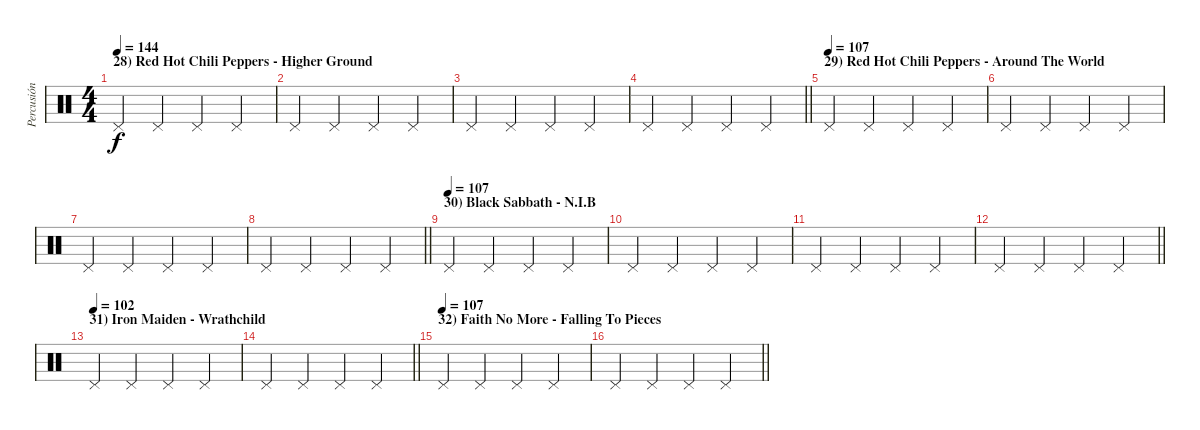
\track ("Percusión" "Percusión") {instrument percussion}
\staff {score}
\articulation defaults
\ts (4 4)
\section ("" "28) Red Hot Chili Peppers - Higher Ground")
\tempo 144
\clef neutral
\ks c "Pedal Hi-Hat (hit)".4{dy f} "Pedal Hi-Hat (hit)".4 "Pedal Hi-Hat (hit)".4 "Pedal Hi-Hat (hit)".4
|
"Pedal Hi-Hat (hit)".4 "Pedal Hi-Hat (hit)".4 "Pedal Hi-Hat (hit)".4 "Pedal Hi-Hat (hit)".4 |
"Pedal Hi-Hat (hit)".4 "Pedal Hi-Hat (hit)".4 "Pedal Hi-Hat (hit)".4 "Pedal Hi-Hat (hit)".4 |
\barLineRight lightlight "Pedal Hi-Hat (hit)".4 "Pedal Hi-Hat (hit)".4 "Pedal Hi-Hat (hit)".4 "Pedal Hi-Hat (hit)".4
|
\section ("" "29) Red Hot Chili Peppers - Around The World")
\tempo (107)
"Pedal Hi-Hat (hit)".4 "Pedal Hi-Hat (hit)".4 "Pedal Hi-Hat (hit)".4 "Pedal Hi-Hat (hit)".4 |
"Pedal Hi-Hat (hit)".4 "Pedal Hi-Hat (hit)".4 "Pedal Hi-Hat (hit)".4 "Pedal Hi-Hat (hit)".4 |
"Pedal Hi-Hat (hit)".4 "Pedal Hi-Hat (hit)".4 "Pedal Hi-Hat (hit)".4 "Pedal Hi-Hat (hit)".4 |
\barLineRight lightlight "Pedal Hi-Hat (hit)".4 "Pedal Hi-Hat (hit)".4 "Pedal Hi-Hat (hit)".4 "Pedal Hi-Hat (hit)".4
|
\section ("" "30) Black Sabbath - N.I.B")
\tempo (107)
"Pedal Hi-Hat (hit)".4 "Pedal Hi-Hat (hit)".4 "Pedal Hi-Hat (hit)".4 "Pedal Hi-Hat (hit)".4 |
"Pedal Hi-Hat (hit)".4 "Pedal Hi-Hat (hit)".4 "Pedal Hi-Hat (hit)".4 "Pedal Hi-Hat (hit)".4 |
"Pedal Hi-Hat (hit)".4 "Pedal Hi-Hat (hit)".4 "Pedal Hi-Hat (hit)".4 "Pedal Hi-Hat (hit)".4 |
\barLineRight lightlight "Pedal Hi-Hat (hit)".4 "Pedal Hi-Hat (hit)".4 "Pedal Hi-Hat (hit)".4 "Pedal Hi-Hat (hit)".4
|
\section ("" "31) Iron Maiden - Wrathchild")
\tempo (102)
"Pedal Hi-Hat (hit)".4 "Pedal Hi-Hat (hit)".4 "Pedal Hi-Hat (hit)".4 "Pedal Hi-Hat (hit)".4 |
\barLineRight lightlight "Pedal Hi-Hat (hit)".4 "Pedal Hi-Hat (hit)".4 "Pedal Hi-Hat (hit)".4 "Pedal Hi-Hat (hit)".4
|
\section ("" "32) Faith No More - Falling To Pieces")
\tempo (107)
"Pedal Hi-Hat (hit)".4 "Pedal Hi-Hat (hit)".4 "Pedal Hi-Hat (hit)".4 "Pedal Hi-Hat (hit)".4 |
\barLineRight lightlight "Pedal Hi-Hat (hit)".4 "Pedal Hi-Hat (hit)".4 "Pedal Hi-Hat (hit)".4 "Pedal Hi-Hat (hit)".4
